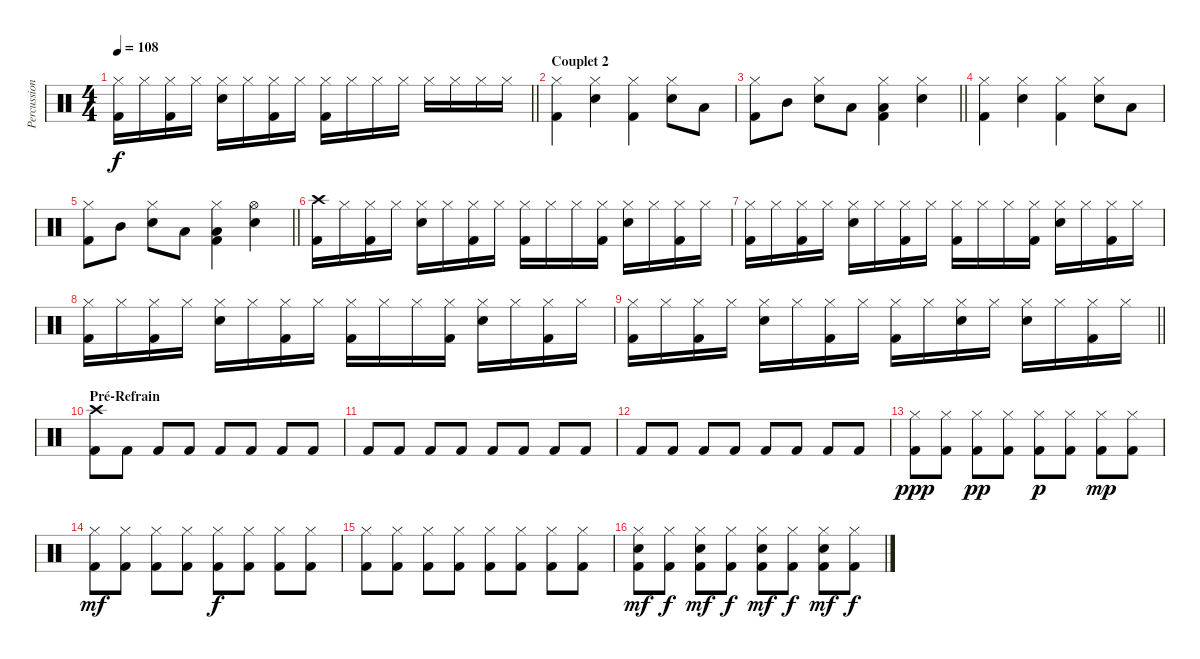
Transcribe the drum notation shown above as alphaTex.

\track ("Percussions" "Percussion") {instrument percussion}
\staff {score}
\articulation defaults
\ts (4 4)
\tempo 108
\clef neutral
\barLineRight lightlight
\ks c
("Hi-Hat (closed)" "Kick (hit) 2").16{dy f} "Hi-Hat (closed)".16 ("Hi-Hat (closed)" "Kick (hit) 2").16 "Hi-Hat (closed)".16 ("Hi-Hat (closed)" "Snare (hit) 2").16 "Hi-Hat (closed)".16 ("Hi-Hat (closed)" "Kick (hit) 2").16 "Hi-Hat (closed)".16 ("Hi-Hat (closed)" "Kick (hit) 2").16 "Hi-Hat (closed)".16 "Hi-Hat (closed)".16 "Hi-Hat (closed)".16 "Hi-Hat (closed)".16 "Hi-Hat (closed)".16 "Hi-Hat (closed)".16 "Hi-Hat (closed)".16 |
\section ("" "Couplet 2")
("Hi-Hat (closed)" "Kick (hit) 2").4 ("Hi-Hat (closed)" "Snare (hit) 2").4 ("Hi-Hat (closed)" "Kick (hit) 2").4 ("Hi-Hat (closed)" "Snare (hit) 2").8 "Low Tom (hit)".8 |
\barLineRight lightlight
("Hi-Hat (closed)" "Kick (hit) 2").8 "Mid Tom (hit)".8 ("Hi-Hat (closed)" "Snare (hit) 2").8 "Low Floor Tom (hit)".8 ("Hi-Hat (closed)" "Low Floor Tom (hit)" "Kick (hit) 2").4 ("Hi-Hat (closed)" "Snare (hit) 2").4 |
("Hi-Hat (closed)" "Kick (hit) 2").4 ("Hi-Hat (closed)" "Snare (hit) 2").4 ("Hi-Hat (closed)" "Kick (hit) 2").4 ("Hi-Hat (closed)" "Snare (hit) 2").8 "Low Tom (hit)".8 |
\barLineRight lightlight
("Hi-Hat (closed)" "Kick (hit) 2").8 "Mid Tom (hit)".8 ("Hi-Hat (closed)" "Snare (hit) 2").8 "Low Floor Tom (hit)".8 ("Hi-Hat (closed)" "Low Floor Tom (hit)" "Kick (hit) 2").4 ("Hi-Hat (open)" "Snare (hit) 2").4 |
("Crash high (hit)" "Kick (hit) 2").16 "Hi-Hat (closed)".16 ("Hi-Hat (closed)" "Kick (hit) 2").16 "Hi-Hat (closed)".16 ("Hi-Hat (closed)" "Snare (hit) 2").16 "Hi-Hat (closed)".16 ("Hi-Hat (closed)" "Kick (hit) 2").16 "Hi-Hat (closed)".16 ("Hi-Hat (closed)" "Kick (hit) 2").16 "Hi-Hat (closed)".16 "Hi-Hat (closed)".16 ("Hi-Hat (closed)" "Kick (hit) 2").16 ("Hi-Hat (closed)" "Snare (hit) 2").16 "Hi-Hat (closed)".16 ("Hi-Hat (closed)" "Kick (hit) 2").16 "Hi-Hat (closed)".16 |
("Hi-Hat (closed)" "Kick (hit) 2").16 "Hi-Hat (closed)".16 ("Hi-Hat (closed)" "Kick (hit) 2").16 "Hi-Hat (closed)".16 ("Hi-Hat (closed)" "Snare (hit) 2").16 "Hi-Hat (closed)".16 ("Hi-Hat (closed)" "Kick (hit) 2").16 "Hi-Hat (closed)".16 ("Hi-Hat (closed)" "Kick (hit) 2").16 "Hi-Hat (closed)".16 "Hi-Hat (closed)".16 ("Hi-Hat (closed)" "Kick (hit) 2").16 ("Hi-Hat (closed)" "Snare (hit) 2").16 "Hi-Hat (closed)".16 ("Hi-Hat (closed)" "Kick (hit) 2").16 "Hi-Hat (closed)".16 |
("Hi-Hat (closed)" "Kick (hit) 2").16 "Hi-Hat (closed)".16 ("Hi-Hat (closed)" "Kick (hit) 2").16 "Hi-Hat (closed)".16 ("Hi-Hat (closed)" "Snare (hit) 2").16 "Hi-Hat (closed)".16 ("Hi-Hat (closed)" "Kick (hit) 2").16 "Hi-Hat (closed)".16 ("Hi-Hat (closed)" "Kick (hit) 2").16 "Hi-Hat (closed)".16 "Hi-Hat (closed)".16 ("Hi-Hat (closed)" "Kick (hit) 2").16 ("Hi-Hat (closed)" "Snare (hit) 2").16 "Hi-Hat (closed)".16 ("Hi-Hat (closed)" "Kick (hit) 2").16 "Hi-Hat (closed)".16 |
\barLineRight lightlight
("Hi-Hat (closed)" "Kick (hit) 2").16 "Hi-Hat (closed)".16 ("Hi-Hat (closed)" "Kick (hit) 2").16 "Hi-Hat (closed)".16 ("Hi-Hat (closed)" "Snare (hit) 2").16 "Hi-Hat (closed)".16 ("Hi-Hat (closed)" "Kick (hit) 2").16 "Hi-Hat (closed)".16 ("Hi-Hat (closed)" "Kick (hit) 2").16 "Hi-Hat (closed)".16 ("Hi-Hat (closed)" "Snare (hit) 2").16 "Hi-Hat (closed)".16 ("Hi-Hat (closed)" "Snare (hit) 2").16 "Hi-Hat (closed)".16 ("Hi-Hat (closed)" "Kick (hit) 2").16 "Hi-Hat (closed)".16 |
\section ("" "Pré-Refrain")
("Crash high (hit)" "Kick (hit) 2").8 "Kick (hit) 2".8 "Kick (hit) 2".8 "Kick (hit) 2".8 "Kick (hit) 2".8 "Kick (hit) 2".8 "Kick (hit) 2".8 "Kick (hit) 2".8 |
"Kick (hit) 2".8 "Kick (hit) 2".8 "Kick (hit) 2".8 "Kick (hit) 2".8 "Kick (hit) 2".8 "Kick (hit) 2".8 "Kick (hit) 2".8 "Kick (hit) 2".8 |
"Kick (hit) 2".8 "Kick (hit) 2".8 "Kick (hit) 2".8 "Kick (hit) 2".8 "Kick (hit) 2".8 "Kick (hit) 2".8 "Kick (hit) 2".8 "Kick (hit) 2".8 |
("Hi-Hat (closed)" "Kick (hit) 2").8{dy ppp} ("Hi-Hat (closed)" "Kick (hit) 2").8 ("Hi-Hat (closed)" "Kick (hit) 2").8{dy pp} ("Hi-Hat (closed)" "Kick (hit) 2").8 ("Hi-Hat (closed)" "Kick (hit) 2").8{dy p} ("Hi-Hat (closed)" "Kick (hit) 2").8 ("Hi-Hat (closed)" "Kick (hit) 2").8{dy mp} ("Hi-Hat (closed)" "Kick (hit) 2").8 |
("Hi-Hat (closed)" "Kick (hit) 2").8{dy mf} ("Hi-Hat (closed)" "Kick (hit) 2").8 ("Hi-Hat (closed)" "Kick (hit) 2").8 ("Hi-Hat (closed)" "Kick (hit) 2").8 ("Hi-Hat (closed)" "Kick (hit) 2").8{dy f} ("Hi-Hat (closed)" "Kick (hit) 2").8 ("Hi-Hat (closed)" "Kick (hit) 2").8 ("Hi-Hat (closed)" "Kick (hit) 2").8 |
("Hi-Hat (closed)" "Kick (hit) 2").8 ("Hi-Hat (closed)" "Kick (hit) 2").8 ("Hi-Hat (closed)" "Kick (hit) 2").8 ("Hi-Hat (closed)" "Kick (hit) 2").8 ("Hi-Hat (closed)" "Kick (hit) 2").8 ("Hi-Hat (closed)" "Kick (hit) 2").8 ("Hi-Hat (closed)" "Kick (hit) 2").8 ("Hi-Hat (closed)" "Kick (hit) 2").8 |
("Hi-Hat (closed)" "Snare (hit) 2" "Kick (hit) 2").8{dy mf} ("Hi-Hat (closed)" "Kick (hit) 2").8{dy f} ("Hi-Hat (closed)" "Snare (hit) 2" "Kick (hit) 2").8{dy mf} ("Hi-Hat (closed)" "Kick (hit) 2").8{dy f} ("Hi-Hat (closed)" "Snare (hit) 2" "Kick (hit) 2").8{dy mf} ("Hi-Hat (closed)" "Kick (hit) 2").8{dy f} ("Hi-Hat (closed)" "Snare (hit) 2" "Kick (hit) 2").8{dy mf} ("Hi-Hat (closed)" "Kick (hit) 2").8{dy f}
